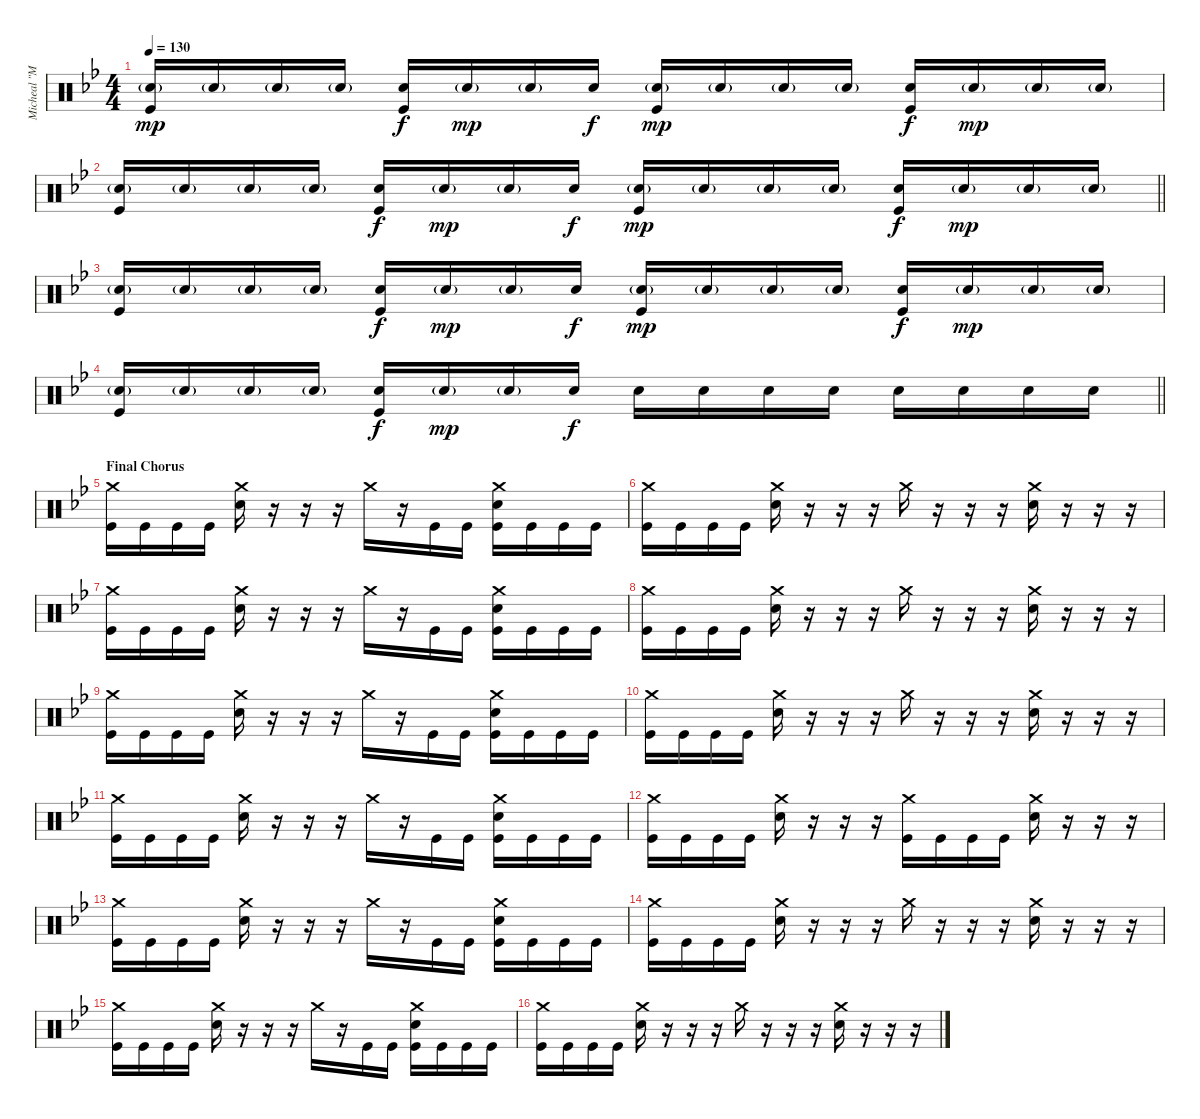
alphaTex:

\track ("Micheal \"Moose\" Thomas" "Micheal \"M") {instrument percussion}
\staff {score}
\articulation defaults
\ts (4 4)
\tempo 130
\clef neutral
\ks bb
("Electric Snare (hit)"{g} "Kick (hit)").16{dy mp} "Electric Snare (hit)"{g}.16 "Electric Snare (hit)"{g}.16 "Electric Snare (hit)"{g}.16 ("Electric Snare (hit)" "Kick (hit)").16{dy f} "Electric Snare (hit)"{g}.16{dy mp} "Electric Snare (hit)"{g}.16 "Electric Snare (hit)".16{dy f} ("Electric Snare (hit)"{g} "Kick (hit)").16{dy mp} "Electric Snare (hit)"{g}.16 "Electric Snare (hit)"{g}.16 "Electric Snare (hit)"{g}.16 ("Electric Snare (hit)" "Kick (hit)").16{dy f} "Electric Snare (hit)"{g}.16{dy mp} "Electric Snare (hit)"{g}.16 "Electric Snare (hit)"{g}.16 |
\barLineRight lightlight
("Electric Snare (hit)"{g} "Kick (hit)").16 "Electric Snare (hit)"{g}.16 "Electric Snare (hit)"{g}.16 "Electric Snare (hit)"{g}.16 ("Electric Snare (hit)" "Kick (hit)").16{dy f} "Electric Snare (hit)"{g}.16{dy mp} "Electric Snare (hit)"{g}.16 "Electric Snare (hit)".16{dy f} ("Electric Snare (hit)"{g} "Kick (hit)").16{dy mp} "Electric Snare (hit)"{g}.16 "Electric Snare (hit)"{g}.16 "Electric Snare (hit)"{g}.16 ("Electric Snare (hit)" "Kick (hit)").16{dy f} "Electric Snare (hit)"{g}.16{dy mp} "Electric Snare (hit)"{g}.16 "Electric Snare (hit)"{g}.16 |
("Electric Snare (hit)"{g} "Kick (hit)").16 "Electric Snare (hit)"{g}.16 "Electric Snare (hit)"{g}.16 "Electric Snare (hit)"{g}.16 ("Electric Snare (hit)" "Kick (hit)").16{dy f} "Electric Snare (hit)"{g}.16{dy mp} "Electric Snare (hit)"{g}.16 "Electric Snare (hit)".16{dy f} ("Electric Snare (hit)"{g} "Kick (hit)").16{dy mp} "Electric Snare (hit)"{g}.16 "Electric Snare (hit)"{g}.16 "Electric Snare (hit)"{g}.16 ("Electric Snare (hit)" "Kick (hit)").16{dy f} "Electric Snare (hit)"{g}.16{dy mp} "Electric Snare (hit)"{g}.16 "Electric Snare (hit)"{g}.16 |
\barLineRight lightlight
("Electric Snare (hit)"{g} "Kick (hit)").16 "Electric Snare (hit)"{g}.16 "Electric Snare (hit)"{g}.16 "Electric Snare (hit)"{g}.16 ("Electric Snare (hit)" "Kick (hit)").16{dy f} "Electric Snare (hit)"{g}.16{dy mp} "Electric Snare (hit)"{g}.16 "Electric Snare (hit)".16{dy f} "Snare (hit) 2".16 "Snare (hit) 2".16 "Snare (hit) 2".16 "Snare (hit) 2".16 "Snare (hit) 2".16 "Snare (hit) 2".16 "Snare (hit) 2".16 "Snare (hit) 2".16 |
\section ("" "Final Chorus")
("Crash medium (hit)" "Kick (hit)").16 "Kick (hit)".16 "Kick (hit)".16 "Kick (hit)".16 ("Crash medium (hit)" "Snare (hit) 2").16 r.16 r.16 r.16 "Crash medium (hit)".16 r.16 "Kick (hit)".16 "Kick (hit)".16 ("Crash medium (hit)" "Snare (hit) 2" "Kick (hit)").16 "Kick (hit)".16 "Kick (hit)".16 "Kick (hit)".16 |
("Crash medium (hit)" "Kick (hit)").16 "Kick (hit)".16 "Kick (hit)".16 "Kick (hit)".16 ("Crash medium (hit)" "Snare (hit) 2").16 r.16 r.16 r.16 "Crash medium (hit)".16 r.16 r.16 r.16 ("Crash medium (hit)" "Snare (hit) 2").16 r.16 r.16 r.16 |
("Crash medium (hit)" "Kick (hit)").16 "Kick (hit)".16 "Kick (hit)".16 "Kick (hit)".16 ("Crash medium (hit)" "Snare (hit) 2").16 r.16 r.16 r.16 "Crash medium (hit)".16 r.16 "Kick (hit)".16 "Kick (hit)".16 ("Crash medium (hit)" "Snare (hit) 2" "Kick (hit)").16 "Kick (hit)".16 "Kick (hit)".16 "Kick (hit)".16 |
("Crash medium (hit)" "Kick (hit)").16 "Kick (hit)".16 "Kick (hit)".16 "Kick (hit)".16 ("Crash medium (hit)" "Snare (hit) 2").16 r.16 r.16 r.16 "Crash medium (hit)".16 r.16 r.16 r.16 ("Crash medium (hit)" "Snare (hit) 2").16 r.16 r.16 r.16 |
("Crash medium (hit)" "Kick (hit)").16 "Kick (hit)".16 "Kick (hit)".16 "Kick (hit)".16 ("Crash medium (hit)" "Snare (hit) 2").16 r.16 r.16 r.16 "Crash medium (hit)".16 r.16 "Kick (hit)".16 "Kick (hit)".16 ("Crash medium (hit)" "Snare (hit) 2" "Kick (hit)").16 "Kick (hit)".16 "Kick (hit)".16 "Kick (hit)".16 |
("Crash medium (hit)" "Kick (hit)").16 "Kick (hit)".16 "Kick (hit)".16 "Kick (hit)".16 ("Crash medium (hit)" "Snare (hit) 2").16 r.16 r.16 r.16 "Crash medium (hit)".16 r.16 r.16 r.16 ("Crash medium (hit)" "Snare (hit) 2").16 r.16 r.16 r.16 |
("Crash medium (hit)" "Kick (hit)").16 "Kick (hit)".16 "Kick (hit)".16 "Kick (hit)".16 ("Crash medium (hit)" "Snare (hit) 2").16 r.16 r.16 r.16 "Crash medium (hit)".16 r.16 "Kick (hit)".16 "Kick (hit)".16 ("Crash medium (hit)" "Snare (hit) 2" "Kick (hit)").16 "Kick (hit)".16 "Kick (hit)".16 "Kick (hit)".16 |
("Crash medium (hit)" "Kick (hit)").16 "Kick (hit)".16 "Kick (hit)".16 "Kick (hit)".16 ("Crash medium (hit)" "Snare (hit) 2").16 r.16 r.16 r.16 ("Crash medium (hit)" "Kick (hit)").16 "Kick (hit)".16 "Kick (hit)".16 "Kick (hit)".16 ("Crash medium (hit)" "Snare (hit) 2").16 r.16 r.16 r.16 |
("Crash medium (hit)" "Kick (hit)").16 "Kick (hit)".16 "Kick (hit)".16 "Kick (hit)".16 ("Crash medium (hit)" "Snare (hit) 2").16 r.16 r.16 r.16 "Crash medium (hit)".16 r.16 "Kick (hit)".16 "Kick (hit)".16 ("Crash medium (hit)" "Snare (hit) 2" "Kick (hit)").16 "Kick (hit)".16 "Kick (hit)".16 "Kick (hit)".16 |
("Crash medium (hit)" "Kick (hit)").16 "Kick (hit)".16 "Kick (hit)".16 "Kick (hit)".16 ("Crash medium (hit)" "Snare (hit) 2").16 r.16 r.16 r.16 "Crash medium (hit)".16 r.16 r.16 r.16 ("Crash medium (hit)" "Snare (hit) 2").16 r.16 r.16 r.16 |
("Crash medium (hit)" "Kick (hit)").16 "Kick (hit)".16 "Kick (hit)".16 "Kick (hit)".16 ("Crash medium (hit)" "Snare (hit) 2").16 r.16 r.16 r.16 "Crash medium (hit)".16 r.16 "Kick (hit)".16 "Kick (hit)".16 ("Crash medium (hit)" "Snare (hit) 2" "Kick (hit)").16 "Kick (hit)".16 "Kick (hit)".16 "Kick (hit)".16 |
("Crash medium (hit)" "Kick (hit)").16 "Kick (hit)".16 "Kick (hit)".16 "Kick (hit)".16 ("Crash medium (hit)" "Snare (hit) 2").16 r.16 r.16 r.16 "Crash medium (hit)".16 r.16 r.16 r.16 ("Crash medium (hit)" "Snare (hit) 2").16 r.16 r.16 r.16
